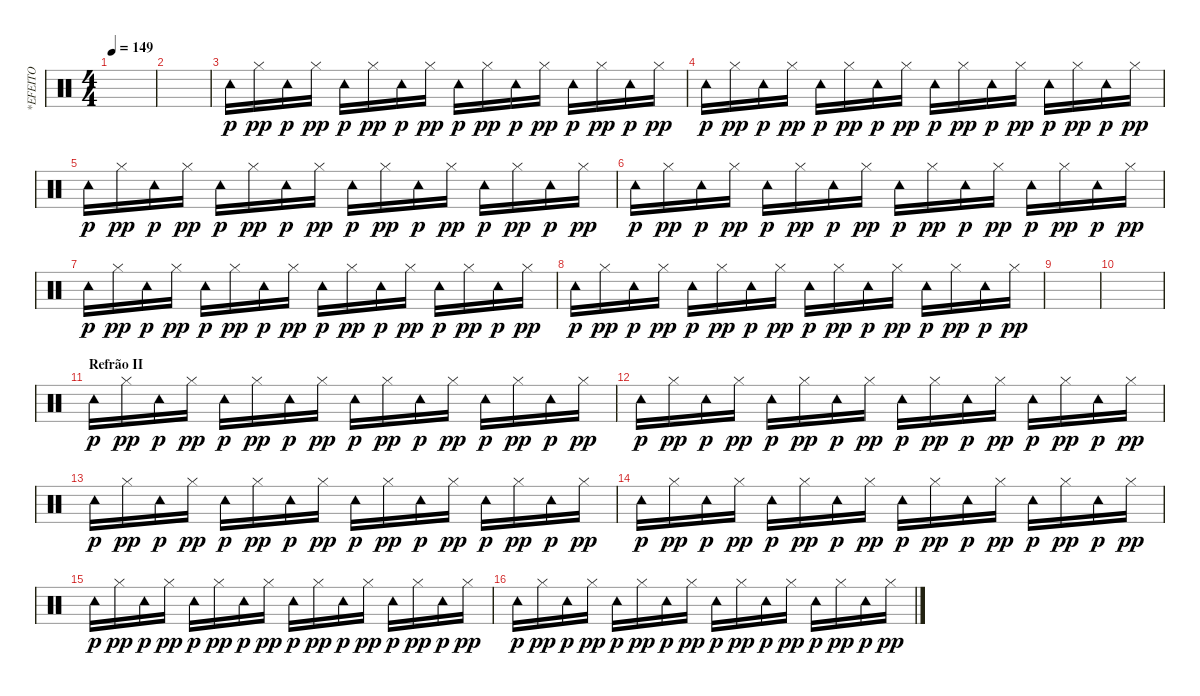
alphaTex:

\track ("*EFEITO" "*EFEITO") {instrument percussion}
\staff {score}
\articulation defaults
\ts (4 4)
\tempo 149
\clef neutral
\ks c
|
|
"Tambourine (hit)".16{dy p} "Hi-Hat (closed)".16{dy pp} "Tambourine (hit)".16{dy p} "Hi-Hat (closed)".16{dy pp} "Tambourine (hit)".16{dy p} "Hi-Hat (closed)".16{dy pp} "Tambourine (hit)".16{dy p} "Hi-Hat (closed)".16{dy pp} "Tambourine (hit)".16{dy p} "Hi-Hat (closed)".16{dy pp} "Tambourine (hit)".16{dy p} "Hi-Hat (closed)".16{dy pp} "Tambourine (hit)".16{dy p} "Hi-Hat (closed)".16{dy pp} "Tambourine (hit)".16{dy p} "Hi-Hat (closed)".16{dy pp} |
"Tambourine (hit)".16{dy p} "Hi-Hat (closed)".16{dy pp} "Tambourine (hit)".16{dy p} "Hi-Hat (closed)".16{dy pp} "Tambourine (hit)".16{dy p} "Hi-Hat (closed)".16{dy pp} "Tambourine (hit)".16{dy p} "Hi-Hat (closed)".16{dy pp} "Tambourine (hit)".16{dy p} "Hi-Hat (closed)".16{dy pp} "Tambourine (hit)".16{dy p} "Hi-Hat (closed)".16{dy pp} "Tambourine (hit)".16{dy p} "Hi-Hat (closed)".16{dy pp} "Tambourine (hit)".16{dy p} "Hi-Hat (closed)".16{dy pp} |
"Tambourine (hit)".16{dy p} "Hi-Hat (closed)".16{dy pp} "Tambourine (hit)".16{dy p} "Hi-Hat (closed)".16{dy pp} "Tambourine (hit)".16{dy p} "Hi-Hat (closed)".16{dy pp} "Tambourine (hit)".16{dy p} "Hi-Hat (closed)".16{dy pp} "Tambourine (hit)".16{dy p} "Hi-Hat (closed)".16{dy pp} "Tambourine (hit)".16{dy p} "Hi-Hat (closed)".16{dy pp} "Tambourine (hit)".16{dy p} "Hi-Hat (closed)".16{dy pp} "Tambourine (hit)".16{dy p} "Hi-Hat (closed)".16{dy pp} |
"Tambourine (hit)".16{dy p} "Hi-Hat (closed)".16{dy pp} "Tambourine (hit)".16{dy p} "Hi-Hat (closed)".16{dy pp} "Tambourine (hit)".16{dy p} "Hi-Hat (closed)".16{dy pp} "Tambourine (hit)".16{dy p} "Hi-Hat (closed)".16{dy pp} "Tambourine (hit)".16{dy p} "Hi-Hat (closed)".16{dy pp} "Tambourine (hit)".16{dy p} "Hi-Hat (closed)".16{dy pp} "Tambourine (hit)".16{dy p} "Hi-Hat (closed)".16{dy pp} "Tambourine (hit)".16{dy p} "Hi-Hat (closed)".16{dy pp} |
"Tambourine (hit)".16{dy p} "Hi-Hat (closed)".16{dy pp} "Tambourine (hit)".16{dy p} "Hi-Hat (closed)".16{dy pp} "Tambourine (hit)".16{dy p} "Hi-Hat (closed)".16{dy pp} "Tambourine (hit)".16{dy p} "Hi-Hat (closed)".16{dy pp} "Tambourine (hit)".16{dy p} "Hi-Hat (closed)".16{dy pp} "Tambourine (hit)".16{dy p} "Hi-Hat (closed)".16{dy pp} "Tambourine (hit)".16{dy p} "Hi-Hat (closed)".16{dy pp} "Tambourine (hit)".16{dy p} "Hi-Hat (closed)".16{dy pp} |
"Tambourine (hit)".16{dy p} "Hi-Hat (closed)".16{dy pp} "Tambourine (hit)".16{dy p} "Hi-Hat (closed)".16{dy pp} "Tambourine (hit)".16{dy p} "Hi-Hat (closed)".16{dy pp} "Tambourine (hit)".16{dy p} "Hi-Hat (closed)".16{dy pp} "Tambourine (hit)".16{dy p} "Hi-Hat (closed)".16{dy pp} "Tambourine (hit)".16{dy p} "Hi-Hat (closed)".16{dy pp} "Tambourine (hit)".16{dy p} "Hi-Hat (closed)".16{dy pp} "Tambourine (hit)".16{dy p} "Hi-Hat (closed)".16{dy pp} |
|
|
\section ("" "Refrão II")
"Tambourine (hit)".16{dy p} "Hi-Hat (closed)".16{dy pp} "Tambourine (hit)".16{dy p} "Hi-Hat (closed)".16{dy pp} "Tambourine (hit)".16{dy p} "Hi-Hat (closed)".16{dy pp} "Tambourine (hit)".16{dy p} "Hi-Hat (closed)".16{dy pp} "Tambourine (hit)".16{dy p} "Hi-Hat (closed)".16{dy pp} "Tambourine (hit)".16{dy p} "Hi-Hat (closed)".16{dy pp} "Tambourine (hit)".16{dy p} "Hi-Hat (closed)".16{dy pp} "Tambourine (hit)".16{dy p} "Hi-Hat (closed)".16{dy pp} |
"Tambourine (hit)".16{dy p} "Hi-Hat (closed)".16{dy pp} "Tambourine (hit)".16{dy p} "Hi-Hat (closed)".16{dy pp} "Tambourine (hit)".16{dy p} "Hi-Hat (closed)".16{dy pp} "Tambourine (hit)".16{dy p} "Hi-Hat (closed)".16{dy pp} "Tambourine (hit)".16{dy p} "Hi-Hat (closed)".16{dy pp} "Tambourine (hit)".16{dy p} "Hi-Hat (closed)".16{dy pp} "Tambourine (hit)".16{dy p} "Hi-Hat (closed)".16{dy pp} "Tambourine (hit)".16{dy p} "Hi-Hat (closed)".16{dy pp} |
"Tambourine (hit)".16{dy p} "Hi-Hat (closed)".16{dy pp} "Tambourine (hit)".16{dy p} "Hi-Hat (closed)".16{dy pp} "Tambourine (hit)".16{dy p} "Hi-Hat (closed)".16{dy pp} "Tambourine (hit)".16{dy p} "Hi-Hat (closed)".16{dy pp} "Tambourine (hit)".16{dy p} "Hi-Hat (closed)".16{dy pp} "Tambourine (hit)".16{dy p} "Hi-Hat (closed)".16{dy pp} "Tambourine (hit)".16{dy p} "Hi-Hat (closed)".16{dy pp} "Tambourine (hit)".16{dy p} "Hi-Hat (closed)".16{dy pp} |
"Tambourine (hit)".16{dy p} "Hi-Hat (closed)".16{dy pp} "Tambourine (hit)".16{dy p} "Hi-Hat (closed)".16{dy pp} "Tambourine (hit)".16{dy p} "Hi-Hat (closed)".16{dy pp} "Tambourine (hit)".16{dy p} "Hi-Hat (closed)".16{dy pp} "Tambourine (hit)".16{dy p} "Hi-Hat (closed)".16{dy pp} "Tambourine (hit)".16{dy p} "Hi-Hat (closed)".16{dy pp} "Tambourine (hit)".16{dy p} "Hi-Hat (closed)".16{dy pp} "Tambourine (hit)".16{dy p} "Hi-Hat (closed)".16{dy pp} |
"Tambourine (hit)".16{dy p} "Hi-Hat (closed)".16{dy pp} "Tambourine (hit)".16{dy p} "Hi-Hat (closed)".16{dy pp} "Tambourine (hit)".16{dy p} "Hi-Hat (closed)".16{dy pp} "Tambourine (hit)".16{dy p} "Hi-Hat (closed)".16{dy pp} "Tambourine (hit)".16{dy p} "Hi-Hat (closed)".16{dy pp} "Tambourine (hit)".16{dy p} "Hi-Hat (closed)".16{dy pp} "Tambourine (hit)".16{dy p} "Hi-Hat (closed)".16{dy pp} "Tambourine (hit)".16{dy p} "Hi-Hat (closed)".16{dy pp} |
"Tambourine (hit)".16{dy p} "Hi-Hat (closed)".16{dy pp} "Tambourine (hit)".16{dy p} "Hi-Hat (closed)".16{dy pp} "Tambourine (hit)".16{dy p} "Hi-Hat (closed)".16{dy pp} "Tambourine (hit)".16{dy p} "Hi-Hat (closed)".16{dy pp} "Tambourine (hit)".16{dy p} "Hi-Hat (closed)".16{dy pp} "Tambourine (hit)".16{dy p} "Hi-Hat (closed)".16{dy pp} "Tambourine (hit)".16{dy p} "Hi-Hat (closed)".16{dy pp} "Tambourine (hit)".16{dy p} "Hi-Hat (closed)".16{dy pp}
